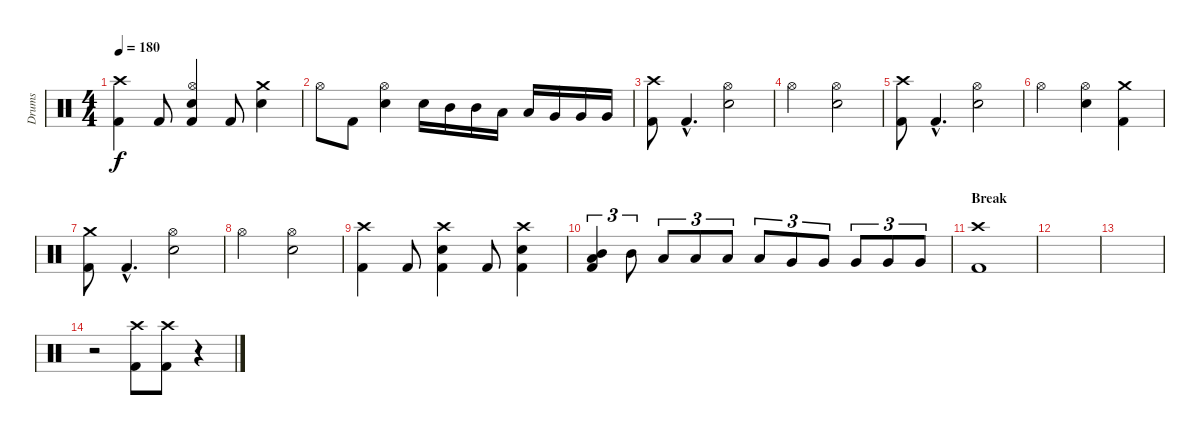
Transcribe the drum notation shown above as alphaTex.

\track ("Drums" "Drums") {instrument percussion}
\staff {score}
\articulation defaults
\ts (4 4)
\tempo 180
\clef neutral
\ks c
("Crash high (hit)" "Kick (hit) 2").4{dy f} "Kick (hit) 2".8 ("Hi-Hat (open)" "Electric Snare (hit)" "Kick (hit) 2").4 "Kick (hit) 2".8 ("Crash medium (hit)" "Electric Snare (hit)").4 |
"Hi-Hat (open)".8 "Kick (hit) 2".8 ("Hi-Hat (open)" "Electric Snare (hit)").4 "Electric Snare (hit)".16 "Mid Tom (hit)".16 "Mid Tom (hit)".16 "Low Tom (hit)".16 "Low Tom (hit)".16 "Very Low Tom (hit)".16 "Very Low Tom (hit)".16 "Very Low Tom (hit)".16 |
("Crash high (hit)" "Kick (hit) 2").8 "Kick (hit) 2"{hac}.4{d} ("Hi-Hat (open)" "Electric Snare (hit)").2 |
"Hi-Hat (open)".2 ("Hi-Hat (open)" "Electric Snare (hit)").2 |
("Crash high (hit)" "Kick (hit) 2").8 "Kick (hit) 2"{hac}.4{d} ("Hi-Hat (open)" "Electric Snare (hit)").2 |
"Hi-Hat (open)".2 ("Hi-Hat (open)" "Electric Snare (hit)").4 ("Crash medium (hit)" "Kick (hit) 2").4 |
("Crash medium (hit)" "Kick (hit) 2").8 "Kick (hit) 2"{hac}.4{d} ("Hi-Hat (open)" "Electric Snare (hit)").2 |
"Hi-Hat (open)".2 ("Hi-Hat (open)" "Electric Snare (hit)").2 |
("Crash high (hit)" "Kick (hit) 2").4 "Kick (hit) 2".8 ("Crash high (hit)" "Electric Snare (hit)" "Kick (hit) 2").4 "Kick (hit) 2".8 ("Crash high (hit)" "Electric Snare (hit)" "Kick (hit) 2").4 |
("Mid Tom (hit)" "Low Tom (hit)" "Kick (hit) 2").4{tu (3 2)} "Mid Tom (hit)".8{tu (3 2)} "Low Tom (hit)".8{tu (3 2)} "Low Tom (hit)".8{tu (3 2)} "Low Tom (hit)".8{tu (3 2)} "Low Tom (hit)".8{tu (3 2)} "Very Low Tom (hit)".8{tu (3 2)} "Very Low Tom (hit)".8{tu (3 2)} "Very Low Tom (hit)".8{tu (3 2)} "Very Low Tom (hit)".8{tu (3 2)} "Very Low Tom (hit)".8{tu (3 2)} |
\section ("" "Break")
("Crash high (hit)" "Kick (hit) 2").1 |
|
|
r.2 ("Crash high (hit)" "Kick (hit) 2").8 ("Crash high (hit)" "Kick (hit) 2").8 r.4
